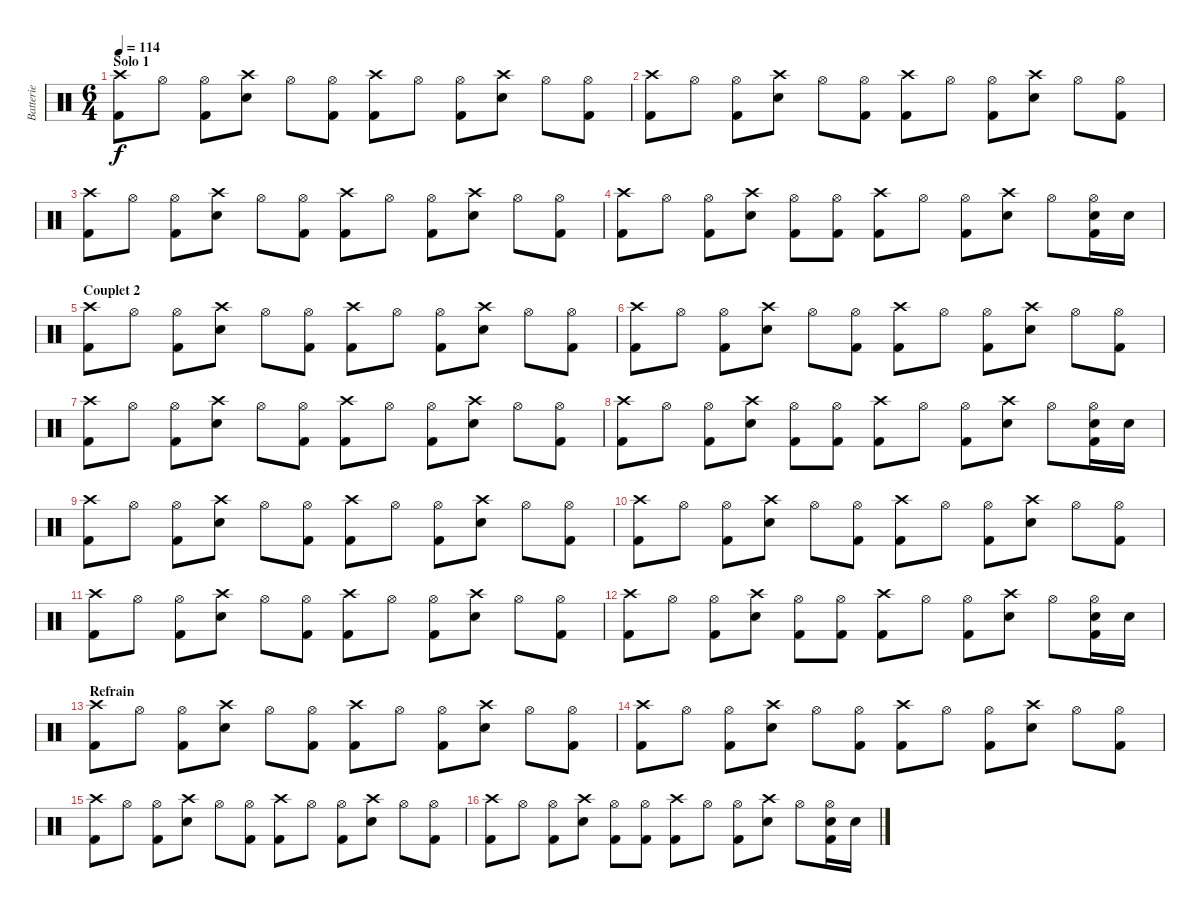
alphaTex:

\track ("Batterie" "Batterie") {instrument percussion}
\staff {score}
\articulation defaults
\ts (6 4)
\section ("" "Solo 1")
\tempo 114
\clef neutral
\ks c
("Crash high (hit)" "Kick (hit) 2").8{dy f} "Hi-Hat (open)".8 ("Hi-Hat (open)" "Kick (hit) 2").8 ("Crash high (hit)" "Electric Snare (hit)").8 "Hi-Hat (open)".8 ("Hi-Hat (open)" "Kick (hit) 2").8 ("Crash high (hit)" "Kick (hit) 2").8 "Hi-Hat (open)".8 ("Hi-Hat (open)" "Kick (hit) 2").8 ("Crash high (hit)" "Electric Snare (hit)").8 "Hi-Hat (open)".8 ("Hi-Hat (open)" "Kick (hit) 2").8 |
("Crash high (hit)" "Kick (hit) 2").8 "Hi-Hat (open)".8 ("Hi-Hat (open)" "Kick (hit) 2").8 ("Crash high (hit)" "Electric Snare (hit)").8 "Hi-Hat (open)".8 ("Hi-Hat (open)" "Kick (hit) 2").8 ("Crash high (hit)" "Kick (hit) 2").8 "Hi-Hat (open)".8 ("Hi-Hat (open)" "Kick (hit) 2").8 ("Crash high (hit)" "Electric Snare (hit)").8 "Hi-Hat (open)".8 ("Hi-Hat (open)" "Kick (hit) 2").8 |
("Crash high (hit)" "Kick (hit) 2").8 "Hi-Hat (open)".8 ("Hi-Hat (open)" "Kick (hit) 2").8 ("Crash high (hit)" "Electric Snare (hit)").8 "Hi-Hat (open)".8 ("Hi-Hat (open)" "Kick (hit) 2").8 ("Crash high (hit)" "Kick (hit) 2").8 "Hi-Hat (open)".8 ("Hi-Hat (open)" "Kick (hit) 2").8 ("Crash high (hit)" "Electric Snare (hit)").8 "Hi-Hat (open)".8 ("Hi-Hat (open)" "Kick (hit) 2").8 |
("Crash high (hit)" "Kick (hit) 2").8 "Hi-Hat (open)".8 ("Hi-Hat (open)" "Kick (hit) 2").8 ("Crash high (hit)" "Electric Snare (hit)").8 ("Hi-Hat (open)" "Kick (hit) 2").8 ("Hi-Hat (open)" "Kick (hit) 2").8 ("Crash high (hit)" "Kick (hit) 2").8 "Hi-Hat (open)".8 ("Hi-Hat (open)" "Kick (hit) 2").8 ("Crash high (hit)" "Electric Snare (hit)").8 "Hi-Hat (open)".8 ("Hi-Hat (open)" "Electric Snare (hit)" "Kick (hit) 2").16 "Electric Snare (hit)".16 |
\section ("" "Couplet 2")
("Crash high (hit)" "Kick (hit) 2").8 "Hi-Hat (open)".8 ("Hi-Hat (open)" "Kick (hit) 2").8 ("Crash high (hit)" "Electric Snare (hit)").8 "Hi-Hat (open)".8 ("Hi-Hat (open)" "Kick (hit) 2").8 ("Crash high (hit)" "Kick (hit) 2").8 "Hi-Hat (open)".8 ("Hi-Hat (open)" "Kick (hit) 2").8 ("Crash high (hit)" "Electric Snare (hit)").8 "Hi-Hat (open)".8 ("Hi-Hat (open)" "Kick (hit) 2").8 |
("Crash high (hit)" "Kick (hit) 2").8 "Hi-Hat (open)".8 ("Hi-Hat (open)" "Kick (hit) 2").8 ("Crash high (hit)" "Electric Snare (hit)").8 "Hi-Hat (open)".8 ("Hi-Hat (open)" "Kick (hit) 2").8 ("Crash high (hit)" "Kick (hit) 2").8 "Hi-Hat (open)".8 ("Hi-Hat (open)" "Kick (hit) 2").8 ("Crash high (hit)" "Electric Snare (hit)").8 "Hi-Hat (open)".8 ("Hi-Hat (open)" "Kick (hit) 2").8 |
("Crash high (hit)" "Kick (hit) 2").8 "Hi-Hat (open)".8 ("Hi-Hat (open)" "Kick (hit) 2").8 ("Crash high (hit)" "Electric Snare (hit)").8 "Hi-Hat (open)".8 ("Hi-Hat (open)" "Kick (hit) 2").8 ("Crash high (hit)" "Kick (hit) 2").8 "Hi-Hat (open)".8 ("Hi-Hat (open)" "Kick (hit) 2").8 ("Crash high (hit)" "Electric Snare (hit)").8 "Hi-Hat (open)".8 ("Hi-Hat (open)" "Kick (hit) 2").8 |
("Crash high (hit)" "Kick (hit) 2").8 "Hi-Hat (open)".8 ("Hi-Hat (open)" "Kick (hit) 2").8 ("Crash high (hit)" "Electric Snare (hit)").8 ("Hi-Hat (open)" "Kick (hit) 2").8 ("Hi-Hat (open)" "Kick (hit) 2").8 ("Crash high (hit)" "Kick (hit) 2").8 "Hi-Hat (open)".8 ("Hi-Hat (open)" "Kick (hit) 2").8 ("Crash high (hit)" "Electric Snare (hit)").8 "Hi-Hat (open)".8 ("Hi-Hat (open)" "Electric Snare (hit)" "Kick (hit) 2").16 "Electric Snare (hit)".16 |
("Crash high (hit)" "Kick (hit) 2").8 "Hi-Hat (open)".8 ("Hi-Hat (open)" "Kick (hit) 2").8 ("Crash high (hit)" "Electric Snare (hit)").8 "Hi-Hat (open)".8 ("Hi-Hat (open)" "Kick (hit) 2").8 ("Crash high (hit)" "Kick (hit) 2").8 "Hi-Hat (open)".8 ("Hi-Hat (open)" "Kick (hit) 2").8 ("Crash high (hit)" "Electric Snare (hit)").8 "Hi-Hat (open)".8 ("Hi-Hat (open)" "Kick (hit) 2").8 |
("Crash high (hit)" "Kick (hit) 2").8 "Hi-Hat (open)".8 ("Hi-Hat (open)" "Kick (hit) 2").8 ("Crash high (hit)" "Electric Snare (hit)").8 "Hi-Hat (open)".8 ("Hi-Hat (open)" "Kick (hit) 2").8 ("Crash high (hit)" "Kick (hit) 2").8 "Hi-Hat (open)".8 ("Hi-Hat (open)" "Kick (hit) 2").8 ("Crash high (hit)" "Electric Snare (hit)").8 "Hi-Hat (open)".8 ("Hi-Hat (open)" "Kick (hit) 2").8 |
("Crash high (hit)" "Kick (hit) 2").8 "Hi-Hat (open)".8 ("Hi-Hat (open)" "Kick (hit) 2").8 ("Crash high (hit)" "Electric Snare (hit)").8 "Hi-Hat (open)".8 ("Hi-Hat (open)" "Kick (hit) 2").8 ("Crash high (hit)" "Kick (hit) 2").8 "Hi-Hat (open)".8 ("Hi-Hat (open)" "Kick (hit) 2").8 ("Crash high (hit)" "Electric Snare (hit)").8 "Hi-Hat (open)".8 ("Hi-Hat (open)" "Kick (hit) 2").8 |
("Crash high (hit)" "Kick (hit) 2").8 "Hi-Hat (open)".8 ("Hi-Hat (open)" "Kick (hit) 2").8 ("Crash high (hit)" "Electric Snare (hit)").8 ("Hi-Hat (open)" "Kick (hit) 2").8 ("Hi-Hat (open)" "Kick (hit) 2").8 ("Crash high (hit)" "Kick (hit) 2").8 "Hi-Hat (open)".8 ("Hi-Hat (open)" "Kick (hit) 2").8 ("Crash high (hit)" "Electric Snare (hit)").8 "Hi-Hat (open)".8 ("Hi-Hat (open)" "Electric Snare (hit)" "Kick (hit) 2").16 "Electric Snare (hit)".16 |
\section ("" "Refrain")
("Crash high (hit)" "Kick (hit) 2").8 "Hi-Hat (open)".8 ("Hi-Hat (open)" "Kick (hit) 2").8 ("Crash high (hit)" "Electric Snare (hit)").8 "Hi-Hat (open)".8 ("Hi-Hat (open)" "Kick (hit) 2").8 ("Crash high (hit)" "Kick (hit) 2").8 "Hi-Hat (open)".8 ("Hi-Hat (open)" "Kick (hit) 2").8 ("Crash high (hit)" "Electric Snare (hit)").8 "Hi-Hat (open)".8 ("Hi-Hat (open)" "Kick (hit) 2").8 |
("Crash high (hit)" "Kick (hit) 2").8 "Hi-Hat (open)".8 ("Hi-Hat (open)" "Kick (hit) 2").8 ("Crash high (hit)" "Electric Snare (hit)").8 "Hi-Hat (open)".8 ("Hi-Hat (open)" "Kick (hit) 2").8 ("Crash high (hit)" "Kick (hit) 2").8 "Hi-Hat (open)".8 ("Hi-Hat (open)" "Kick (hit) 2").8 ("Crash high (hit)" "Electric Snare (hit)").8 "Hi-Hat (open)".8 ("Hi-Hat (open)" "Kick (hit) 2").8 |
("Crash high (hit)" "Kick (hit) 2").8 "Hi-Hat (open)".8 ("Hi-Hat (open)" "Kick (hit) 2").8 ("Crash high (hit)" "Electric Snare (hit)").8 "Hi-Hat (open)".8 ("Hi-Hat (open)" "Kick (hit) 2").8 ("Crash high (hit)" "Kick (hit) 2").8 "Hi-Hat (open)".8 ("Hi-Hat (open)" "Kick (hit) 2").8 ("Crash high (hit)" "Electric Snare (hit)").8 "Hi-Hat (open)".8 ("Hi-Hat (open)" "Kick (hit) 2").8 |
("Crash high (hit)" "Kick (hit) 2").8 "Hi-Hat (open)".8 ("Hi-Hat (open)" "Kick (hit) 2").8 ("Crash high (hit)" "Electric Snare (hit)").8 ("Hi-Hat (open)" "Kick (hit) 2").8 ("Hi-Hat (open)" "Kick (hit) 2").8 ("Crash high (hit)" "Kick (hit) 2").8 "Hi-Hat (open)".8 ("Hi-Hat (open)" "Kick (hit) 2").8 ("Crash high (hit)" "Electric Snare (hit)").8 "Hi-Hat (open)".8 ("Hi-Hat (open)" "Electric Snare (hit)" "Kick (hit) 2").16 "Electric Snare (hit)".16
